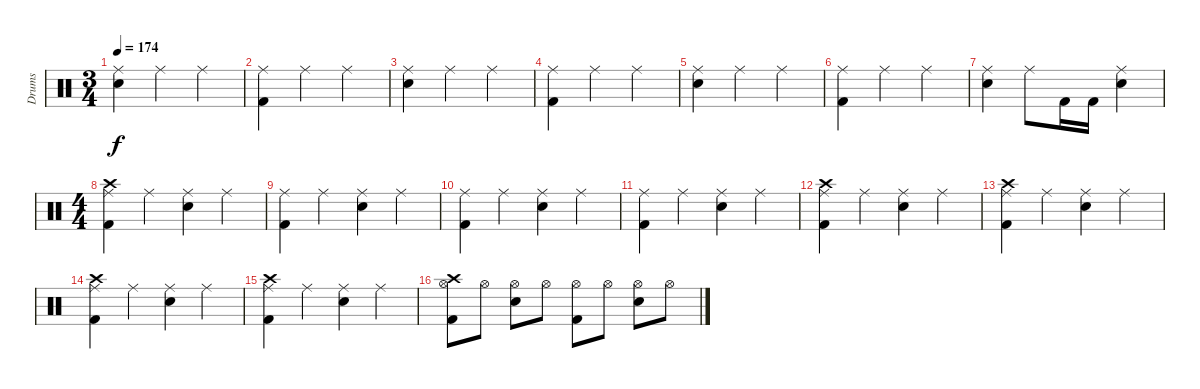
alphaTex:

\track ("Drums" "Drums") {instrument percussion}
\staff {score}
\articulation defaults
\ts (3 4)
\tempo 174
\clef neutral
\ks c
("Ride (middle)" "Snare (hit) 2").4{dy f} "Ride (middle)".4 "Ride (middle)".4 |
("Ride (middle)" "Kick (hit) 2").4 "Ride (middle)".4 "Ride (middle)".4 |
("Ride (middle)" "Snare (hit) 2").4 "Ride (middle)".4 "Ride (middle)".4 |
("Ride (middle)" "Kick (hit) 2").4 "Ride (middle)".4 "Ride (middle)".4 |
("Ride (middle)" "Snare (hit) 2").4 "Ride (middle)".4 "Ride (middle)".4 |
("Ride (middle)" "Kick (hit) 2").4 "Ride (middle)".4 "Ride (middle)".4 |
("Ride (middle)" "Snare (hit) 2").4 "Ride (middle)".8 "Kick (hit) 2".16 "Kick (hit) 2".16 ("Ride (middle)" "Snare (hit) 2").4 |
\ts (4 4)
("Crash high (hit)" "Ride (middle)" "Kick (hit) 2").4 "Ride (middle)".4 ("Ride (middle)" "Snare (hit) 2").4 "Ride (middle)".4 |
("Ride (middle)" "Kick (hit) 2").4 "Ride (middle)".4 ("Ride (middle)" "Snare (hit) 2").4 "Ride (middle)".4 |
("Ride (middle)" "Kick (hit) 2").4 "Ride (middle)".4 ("Ride (middle)" "Snare (hit) 2").4 "Ride (middle)".4 |
("Ride (middle)" "Kick (hit) 2").4 "Ride (middle)".4 ("Ride (middle)" "Snare (hit) 2").4 "Ride (middle)".4 |
("Crash high (hit)" "Ride (middle)" "Kick (hit) 2").4 "Ride (middle)".4 ("Ride (middle)" "Snare (hit) 2").4 "Ride (middle)".4 |
("Crash high (hit)" "Ride (middle)" "Kick (hit) 2").4 "Ride (middle)".4 ("Ride (middle)" "Snare (hit) 2").4 "Ride (middle)".4 |
("Crash high (hit)" "Ride (middle)" "Kick (hit) 2").4 "Ride (middle)".4 ("Ride (middle)" "Snare (hit) 2").4 "Ride (middle)".4 |
("Crash high (hit)" "Ride (middle)" "Kick (hit) 2").4 "Ride (middle)".4 ("Ride (middle)" "Snare (hit) 2").4 "Ride (middle)".4 |
("Hi-Hat (open)" "Crash high (hit)" "Kick (hit) 2").8 "Hi-Hat (open)".8 ("Hi-Hat (open)" "Snare (hit) 2").8 "Hi-Hat (open)".8 ("Hi-Hat (open)" "Kick (hit) 2").8 "Hi-Hat (open)".8 ("Hi-Hat (open)" "Snare (hit) 2").8 "Hi-Hat (open)".8
